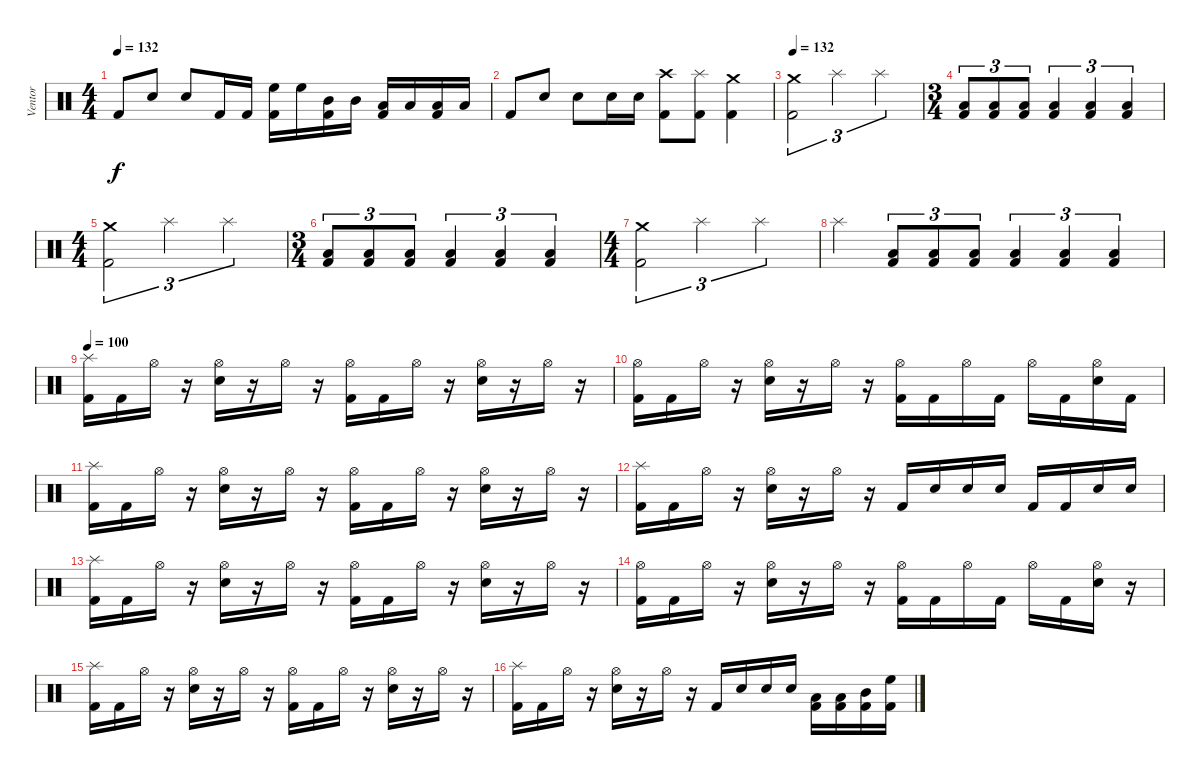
\track ("Ventor" "Ventor") {instrument percussion}
\staff {score}
\articulation defaults
\ts (4 4)
\tempo 132
\clef neutral
\ks c "Kick (hit) 2".8{dy f} "Snare (hit) 2".8 "Snare (hit) 2".8 "Kick (hit) 2".16 "Kick (hit) 2".16
("High Floor Tom (hit)" "Kick (hit) 2").16 "High Floor Tom (hit)".16 ("Mid Tom (hit)" "Kick (hit) 2").16 "Mid Tom (hit)".16 ("Low Tom (hit)" "Kick (hit) 2").16 "Low Tom (hit)".16 ("Low Floor Tom (hit)" "Kick (hit) 2").16 "Low Floor Tom (hit)".16 |
"Kick (hit) 2".8 "Snare (hit) 2".8 "Snare (hit) 2".8 "Snare (hit) 2".16 "Snare (hit) 2".16 ("Crash high (hit)" "Kick (hit) 2").8 ("Splash (hit)" "Kick (hit) 2").8 ("Crash medium (hit)" "Kick (hit) 2").4 |
\tempo 132
("Crash medium (hit)" "Kick (hit) 2").2{tu (3 2)} "Splash (hit)".2{tu (3 2)} "Splash (hit)".2{tu (3 2)} |
\ts (3 4)
("Low Floor Tom (hit)" "Kick (hit) 2").8{tu (3 2)} ("Low Floor Tom (hit)" "Kick (hit) 2").8{tu (3 2)} ("Low Floor Tom (hit)" "Kick (hit) 2").8{tu (3 2)} ("Low Floor Tom (hit)" "Kick (hit) 2").4{tu (3 2)} ("Low Floor Tom (hit)" "Kick (hit) 2").4{tu (3 2)} ("Low Floor Tom (hit)" "Kick (hit) 2").4{tu (3 2)} |
\ts (4 4)
("Crash medium (hit)" "Kick (hit) 2").2{tu (3 2)} "Splash (hit)".2{tu (3 2)} "Splash (hit)".2{tu (3 2)} |
\ts (3 4)
("Low Floor Tom (hit)" "Kick (hit) 2").8{tu (3 2)} ("Low Floor Tom (hit)" "Kick (hit) 2").8{tu (3 2)} ("Low Floor Tom (hit)" "Kick (hit) 2").8{tu (3 2)} ("Low Floor Tom (hit)" "Kick (hit) 2").4{tu (3 2)} ("Low Floor Tom (hit)" "Kick (hit) 2").4{tu (3 2)} ("Low Floor Tom (hit)" "Kick (hit) 2").4{tu (3 2)} |
\ts (4 4)
("Crash medium (hit)" "Kick (hit) 2").2{tu (3 2)} "Splash (hit)".2{tu (3 2)} "Splash (hit)".2{tu (3 2)} |
"Splash (hit)".4 ("Low Floor Tom (hit)" "Kick (hit) 2").8{tu (3 2)} ("Low Floor Tom (hit)" "Kick (hit) 2").8{tu (3 2)} ("Low Floor Tom (hit)" "Kick (hit) 2").8{tu (3 2)} ("Low Floor Tom (hit)" "Kick (hit) 2").4{tu (3 2)} ("Low Floor Tom (hit)" "Kick (hit) 2").4{tu (3 2)} ("Low Floor Tom (hit)" "Kick (hit) 2").4{tu (3 2)} |
\tempo 100
("Splash (hit)" "Kick (hit) 2").16 "Kick (hit) 2".16 "Hi-Hat (open)".16 r.16 ("Hi-Hat (open)" "Snare (hit) 2").16 r.16 "Hi-Hat (open)".16 r.16 ("Hi-Hat (open)" "Kick (hit) 2").16 "Kick (hit) 2".16 "Hi-Hat (open)".16 r.16 ("Hi-Hat (open)" "Snare (hit) 2").16 r.16 "Hi-Hat (open)".16 r.16 |
("Hi-Hat (open)" "Kick (hit) 2").16 "Kick (hit) 2".16 "Hi-Hat (open)".16 r.16 ("Hi-Hat (open)" "Snare (hit) 2").16 r.16 "Hi-Hat (open)".16 r.16 ("Hi-Hat (open)" "Kick (hit) 2").16 "Kick (hit) 2".16 "Hi-Hat (open)".16 "Kick (hit) 2".16 "Hi-Hat (open)".16 "Kick (hit) 2".16 ("Hi-Hat (open)" "Snare (hit) 2").16 "Kick (hit) 2".16 |
("Splash (hit)" "Kick (hit) 2").16 "Kick (hit) 2".16 "Hi-Hat (open)".16 r.16 ("Hi-Hat (open)" "Snare (hit) 2").16 r.16 "Hi-Hat (open)".16 r.16 ("Hi-Hat (open)" "Kick (hit) 2").16 "Kick (hit) 2".16 "Hi-Hat (open)".16 r.16 ("Hi-Hat (open)" "Snare (hit) 2").16 r.16 "Hi-Hat (open)".16 r.16 |
("Splash (hit)" "Kick (hit) 2").16 "Kick (hit) 2".16 "Hi-Hat (open)".16 r.16 ("Hi-Hat (open)" "Snare (hit) 2").16 r.16 "Hi-Hat (open)".16 r.16 "Kick (hit) 2".16 "Snare (hit) 2".16 "Snare (hit) 2".16 "Snare (hit) 2".16 "Kick (hit) 2".16 "Kick (hit) 2".16 "Snare (hit) 2".16 "Snare (hit) 2".16 |
("Splash (hit)" "Kick (hit) 2").16 "Kick (hit) 2".16 "Hi-Hat (open)".16 r.16 ("Hi-Hat (open)" "Snare (hit) 2").16 r.16 "Hi-Hat (open)".16 r.16 ("Hi-Hat (open)" "Kick (hit) 2").16 "Kick (hit) 2".16 "Hi-Hat (open)".16 r.16 ("Hi-Hat (open)" "Snare (hit) 2").16 r.16 "Hi-Hat (open)".16 r.16 |
("Hi-Hat (open)" "Kick (hit) 2").16 "Kick (hit) 2".16 "Hi-Hat (open)".16 r.16 ("Hi-Hat (open)" "Snare (hit) 2").16 r.16 "Hi-Hat (open)".16 r.16 ("Hi-Hat (open)" "Kick (hit) 2").16 "Kick (hit) 2".16 "Hi-Hat (open)".16 "Kick (hit) 2".16 "Hi-Hat (open)".16 "Kick (hit) 2".16 ("Hi-Hat (open)" "Snare (hit) 2").16 r.16 |
("Splash (hit)" "Kick (hit) 2").16 "Kick (hit) 2".16 "Hi-Hat (open)".16 r.16 ("Hi-Hat (open)" "Snare (hit) 2").16 r.16 "Hi-Hat (open)".16 r.16 ("Hi-Hat (open)" "Kick (hit) 2").16 "Kick (hit) 2".16 "Hi-Hat (open)".16 r.16 ("Hi-Hat (open)" "Snare (hit) 2").16 r.16 "Hi-Hat (open)".16 r.16 |
("Splash (hit)" "Kick (hit) 2").16 "Kick (hit) 2".16 "Hi-Hat (open)".16 r.16 ("Hi-Hat (open)" "Snare (hit) 2").16 r.16 "Hi-Hat (open)".16 r.16 "Kick (hit) 2".16 "Snare (hit) 2".16 "Snare (hit) 2".16 "Snare (hit) 2".16 ("Low Floor Tom (hit)" "Kick (hit) 2").16 ("Low Tom (hit)" "Kick (hit) 2").16 ("Mid Tom (hit)" "Kick (hit) 2").16 ("High Floor Tom (hit)" "Kick (hit) 2").16
